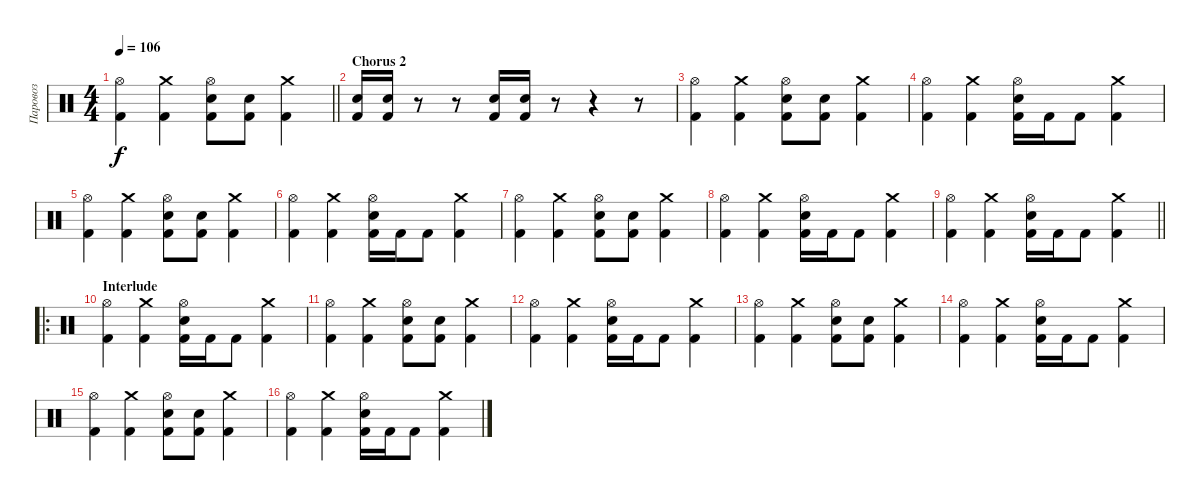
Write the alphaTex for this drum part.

\track ("Паровоз" "Паровоз") {instrument percussion}
\staff {score}
\articulation defaults
\ts (4 4)
\tempo 106
\clef neutral
\barLineRight lightlight
\ks c
("Hi-Hat (open)" "Kick (hit) 2").4{dy f} ("Crash medium (hit)" "Kick (hit) 2").4 ("Hi-Hat (open)" "Electric Snare (hit)" "Kick (hit) 2").8 ("Electric Snare (hit)" "Kick (hit) 2").8 ("Crash medium (hit)" "Kick (hit) 2").4 |
\section ("" "Chorus 2")
("Electric Snare (hit)" "Kick (hit) 2").16 ("Electric Snare (hit)" "Kick (hit) 2").16 r.8 r.8 ("Electric Snare (hit)" "Kick (hit) 2").16 ("Electric Snare (hit)" "Kick (hit) 2").16 r.8 r.4 r.8 |
("Hi-Hat (open)" "Kick (hit) 2").4 ("Crash medium (hit)" "Kick (hit) 2").4 ("Hi-Hat (open)" "Electric Snare (hit)" "Kick (hit) 2").8 ("Electric Snare (hit)" "Kick (hit) 2").8 ("Crash medium (hit)" "Kick (hit) 2").4 |
("Hi-Hat (open)" "Kick (hit) 2").4 ("Crash medium (hit)" "Kick (hit) 2").4 ("Hi-Hat (open)" "Electric Snare (hit)" "Kick (hit) 2").16 "Kick (hit) 2".16 "Kick (hit) 2".8 ("Crash medium (hit)" "Kick (hit) 2").4 |
("Hi-Hat (open)" "Kick (hit) 2").4 ("Crash medium (hit)" "Kick (hit) 2").4 ("Hi-Hat (open)" "Electric Snare (hit)" "Kick (hit) 2").8 ("Electric Snare (hit)" "Kick (hit) 2").8 ("Crash medium (hit)" "Kick (hit) 2").4 |
("Hi-Hat (open)" "Kick (hit) 2").4 ("Crash medium (hit)" "Kick (hit) 2").4 ("Hi-Hat (open)" "Electric Snare (hit)" "Kick (hit) 2").16 "Kick (hit) 2".16 "Kick (hit) 2".8 ("Crash medium (hit)" "Kick (hit) 2").4 |
("Hi-Hat (open)" "Kick (hit) 2").4 ("Crash medium (hit)" "Kick (hit) 2").4 ("Hi-Hat (open)" "Electric Snare (hit)" "Kick (hit) 2").8 ("Electric Snare (hit)" "Kick (hit) 2").8 ("Crash medium (hit)" "Kick (hit) 2").4 |
("Hi-Hat (open)" "Kick (hit) 2").4 ("Crash medium (hit)" "Kick (hit) 2").4 ("Hi-Hat (open)" "Electric Snare (hit)" "Kick (hit) 2").16 "Kick (hit) 2".16 "Kick (hit) 2".8 ("Crash medium (hit)" "Kick (hit) 2").4 |
\barLineRight lightlight
("Hi-Hat (open)" "Kick (hit) 2").4 ("Crash medium (hit)" "Kick (hit) 2").4 ("Hi-Hat (open)" "Electric Snare (hit)" "Kick (hit) 2").16 "Kick (hit) 2".16 "Kick (hit) 2".8 ("Crash medium (hit)" "Kick (hit) 2").4 |
\ro
\section ("" "Interlude")
("Hi-Hat (open)" "Kick (hit) 2").4 ("Crash medium (hit)" "Kick (hit) 2").4 ("Hi-Hat (open)" "Electric Snare (hit)" "Kick (hit) 2").16 "Kick (hit) 2".16 "Kick (hit) 2".8 ("Crash medium (hit)" "Kick (hit) 2").4 |
("Hi-Hat (open)" "Kick (hit) 2").4 ("Crash medium (hit)" "Kick (hit) 2").4 ("Hi-Hat (open)" "Electric Snare (hit)" "Kick (hit) 2").8 ("Electric Snare (hit)" "Kick (hit) 2").8 ("Crash medium (hit)" "Kick (hit) 2").4 |
("Hi-Hat (open)" "Kick (hit) 2").4 ("Crash medium (hit)" "Kick (hit) 2").4 ("Hi-Hat (open)" "Electric Snare (hit)" "Kick (hit) 2").16 "Kick (hit) 2".16 "Kick (hit) 2".8 ("Crash medium (hit)" "Kick (hit) 2").4 |
("Hi-Hat (open)" "Kick (hit) 2").4 ("Crash medium (hit)" "Kick (hit) 2").4 ("Hi-Hat (open)" "Electric Snare (hit)" "Kick (hit) 2").8 ("Electric Snare (hit)" "Kick (hit) 2").8 ("Crash medium (hit)" "Kick (hit) 2").4 |
("Hi-Hat (open)" "Kick (hit) 2").4 ("Crash medium (hit)" "Kick (hit) 2").4 ("Hi-Hat (open)" "Electric Snare (hit)" "Kick (hit) 2").16 "Kick (hit) 2".16 "Kick (hit) 2".8 ("Crash medium (hit)" "Kick (hit) 2").4 |
("Hi-Hat (open)" "Kick (hit) 2").4 ("Crash medium (hit)" "Kick (hit) 2").4 ("Hi-Hat (open)" "Electric Snare (hit)" "Kick (hit) 2").8 ("Electric Snare (hit)" "Kick (hit) 2").8 ("Crash medium (hit)" "Kick (hit) 2").4 |
("Hi-Hat (open)" "Kick (hit) 2").4 ("Crash medium (hit)" "Kick (hit) 2").4 ("Hi-Hat (open)" "Electric Snare (hit)" "Kick (hit) 2").16 "Kick (hit) 2".16 "Kick (hit) 2".8 ("Crash medium (hit)" "Kick (hit) 2").4
